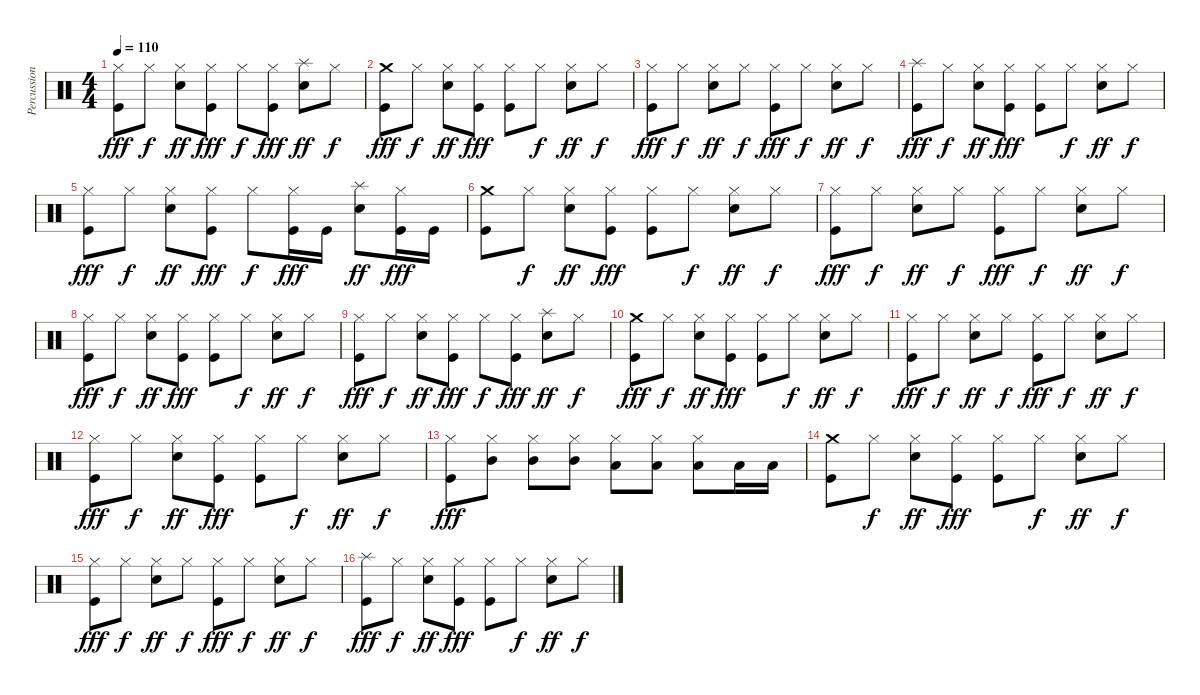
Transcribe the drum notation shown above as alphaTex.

\track ("Percussion" "Percussion") {instrument percussion}
\staff {score}
\articulation defaults
\ts (4 4)
\tempo 110
\clef neutral
\ks c
("Kick (hit)" "Hi-Hat (closed)").8{dy fff} "Hi-Hat (closed)".8{dy f} ("Snare (hit) 2" "Hi-Hat (closed)").8{dy ff} ("Kick (hit)" "Hi-Hat (closed)").8{dy fff} "Hi-Hat (closed)".8{dy f} ("Kick (hit)" "Hi-Hat (closed)").8{dy fff} ("Snare (hit) 2" "Splash (hit)").8{dy ff} "Hi-Hat (closed)".8{dy f} |
("Kick (hit)" "Crash medium (hit)").8{dy fff} "Hi-Hat (closed)".8{dy f} ("Snare (hit) 2" "Hi-Hat (closed)").8{dy ff} ("Kick (hit)" "Hi-Hat (closed)").8{dy fff} ("Kick (hit)" "Hi-Hat (closed)").8 "Hi-Hat (closed)".8{dy f} ("Snare (hit) 2" "Hi-Hat (closed)").8{dy ff} "Hi-Hat (closed)".8{dy f} |
("Kick (hit)" "Hi-Hat (closed)").8{dy fff} "Hi-Hat (closed)".8{dy f} ("Snare (hit) 2" "Hi-Hat (closed)").8{dy ff} "Hi-Hat (closed)".8{dy f} ("Kick (hit)" "Hi-Hat (closed)").8{dy fff} "Hi-Hat (closed)".8{dy f} ("Snare (hit) 2" "Hi-Hat (closed)").8{dy ff} "Hi-Hat (closed)".8{dy f} |
("Kick (hit)" "Splash (hit)").8{dy fff} "Hi-Hat (closed)".8{dy f} ("Snare (hit) 2" "Hi-Hat (closed)").8{dy ff} ("Kick (hit)" "Hi-Hat (closed)").8{dy fff} ("Kick (hit)" "Hi-Hat (closed)").8 "Hi-Hat (closed)".8{dy f} ("Snare (hit) 2" "Hi-Hat (closed)").8{dy ff} "Hi-Hat (closed)".8{dy f} |
("Kick (hit)" "Hi-Hat (closed)").8{dy fff} "Hi-Hat (closed)".8{dy f} ("Snare (hit) 2" "Hi-Hat (closed)").8{dy ff} ("Kick (hit)" "Hi-Hat (closed)").8{dy fff} "Hi-Hat (closed)".8{dy f} ("Kick (hit)" "Hi-Hat (closed)").16{dy fff} "Kick (hit)".16 ("Snare (hit) 2" "Splash (hit)").8{dy ff} ("Kick (hit)" "Hi-Hat (closed)").16{dy fff} "Kick (hit)".16 |
("Kick (hit)" "Crash medium (hit)").8 "Hi-Hat (closed)".8{dy f} ("Snare (hit) 2" "Hi-Hat (closed)").8{dy ff} ("Kick (hit)" "Hi-Hat (closed)").8{dy fff} ("Kick (hit)" "Hi-Hat (closed)").8 "Hi-Hat (closed)".8{dy f} ("Snare (hit) 2" "Hi-Hat (closed)").8{dy ff} "Hi-Hat (closed)".8{dy f} |
("Kick (hit)" "Hi-Hat (closed)").8{dy fff} "Hi-Hat (closed)".8{dy f} ("Snare (hit) 2" "Hi-Hat (closed)").8{dy ff} "Hi-Hat (closed)".8{dy f} ("Kick (hit)" "Hi-Hat (closed)").8{dy fff} "Hi-Hat (closed)".8{dy f} ("Snare (hit) 2" "Hi-Hat (closed)").8{dy ff} "Hi-Hat (closed)".8{dy f} |
("Kick (hit)" "Hi-Hat (closed)").8{dy fff} "Hi-Hat (closed)".8{dy f} ("Snare (hit) 2" "Hi-Hat (closed)").8{dy ff} ("Kick (hit)" "Hi-Hat (closed)").8{dy fff} ("Kick (hit)" "Hi-Hat (closed)").8 "Hi-Hat (closed)".8{dy f} ("Snare (hit) 2" "Hi-Hat (closed)").8{dy ff} "Hi-Hat (closed)".8{dy f} |
("Kick (hit)" "Hi-Hat (closed)").8{dy fff} "Hi-Hat (closed)".8{dy f} ("Snare (hit) 2" "Hi-Hat (closed)").8{dy ff} ("Kick (hit)" "Hi-Hat (closed)").8{dy fff} "Hi-Hat (closed)".8{dy f} ("Kick (hit)" "Hi-Hat (closed)").8{dy fff} ("Snare (hit) 2" "Splash (hit)").8{dy ff} "Hi-Hat (closed)".8{dy f} |
("Kick (hit)" "Crash medium (hit)").8{dy fff} "Hi-Hat (closed)".8{dy f} ("Snare (hit) 2" "Hi-Hat (closed)").8{dy ff} ("Kick (hit)" "Hi-Hat (closed)").8{dy fff} ("Kick (hit)" "Hi-Hat (closed)").8 "Hi-Hat (closed)".8{dy f} ("Snare (hit) 2" "Hi-Hat (closed)").8{dy ff} "Hi-Hat (closed)".8{dy f} |
("Kick (hit)" "Hi-Hat (closed)").8{dy fff} "Hi-Hat (closed)".8{dy f} ("Snare (hit) 2" "Hi-Hat (closed)").8{dy ff} "Hi-Hat (closed)".8{dy f} ("Kick (hit)" "Hi-Hat (closed)").8{dy fff} "Hi-Hat (closed)".8{dy f} ("Snare (hit) 2" "Hi-Hat (closed)").8{dy ff} "Hi-Hat (closed)".8{dy f} |
("Kick (hit)" "Hi-Hat (closed)").8{dy fff} "Hi-Hat (closed)".8{dy f} ("Snare (hit) 2" "Hi-Hat (closed)").8{dy ff} ("Kick (hit)" "Hi-Hat (closed)").8{dy fff} ("Kick (hit)" "Hi-Hat (closed)").8 "Hi-Hat (closed)".8{dy f} ("Snare (hit) 2" "Hi-Hat (closed)").8{dy ff} "Hi-Hat (closed)".8{dy f} |
("Kick (hit)" "Hi-Hat (closed)").8{dy fff} ("Mid Tom (hit)" "Hi-Hat (closed)").8 ("Mid Tom (hit)" "Hi-Hat (closed)").8 ("Mid Tom (hit)" "Hi-Hat (closed)").8 ("Low Tom (hit)" "Hi-Hat (closed)").8 ("Low Tom (hit)" "Hi-Hat (closed)").8 ("Low Tom (hit)" "Hi-Hat (closed)").8 "Low Tom (hit)".16 "Low Tom (hit)".16 |
("Kick (hit)" "Crash medium (hit)").8 "Hi-Hat (closed)".8{dy f} ("Snare (hit) 2" "Hi-Hat (closed)").8{dy ff} ("Kick (hit)" "Hi-Hat (closed)").8{dy fff} ("Kick (hit)" "Hi-Hat (closed)").8 "Hi-Hat (closed)".8{dy f} ("Snare (hit) 2" "Hi-Hat (closed)").8{dy ff} "Hi-Hat (closed)".8{dy f} |
("Kick (hit)" "Hi-Hat (closed)").8{dy fff} "Hi-Hat (closed)".8{dy f} ("Snare (hit) 2" "Hi-Hat (closed)").8{dy ff} "Hi-Hat (closed)".8{dy f} ("Kick (hit)" "Hi-Hat (closed)").8{dy fff} "Hi-Hat (closed)".8{dy f} ("Snare (hit) 2" "Hi-Hat (closed)").8{dy ff} "Hi-Hat (closed)".8{dy f} |
("Kick (hit)" "Splash (hit)").8{dy fff} "Hi-Hat (closed)".8{dy f} ("Snare (hit) 2" "Hi-Hat (closed)").8{dy ff} ("Kick (hit)" "Hi-Hat (closed)").8{dy fff} ("Kick (hit)" "Hi-Hat (closed)").8 "Hi-Hat (closed)".8{dy f} ("Snare (hit) 2" "Hi-Hat (closed)").8{dy ff} "Hi-Hat (closed)".8{dy f}
